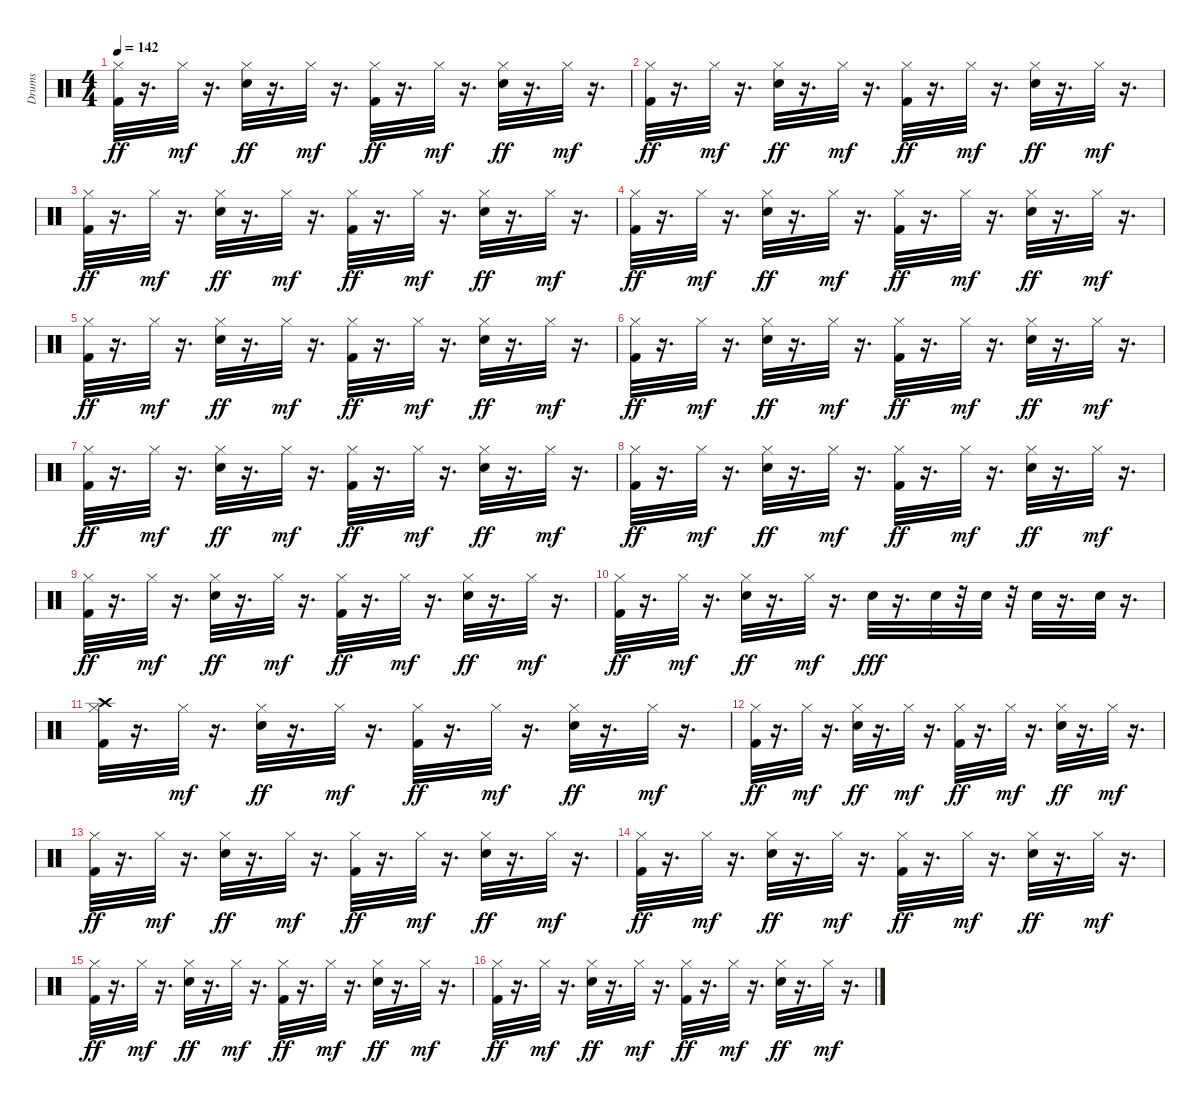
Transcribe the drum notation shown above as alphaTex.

\track ("Drums" "Drums") {instrument percussion}
\staff {score}
\articulation defaults
\ts (4 4)
\tempo 142
\clef neutral
\ks c
("Kick (hit) 2" "Hi-Hat (closed)").32{dy ff} r.16{d} "Hi-Hat (closed)".32{dy mf} r.16{d} ("Snare (hit) 2" "Hi-Hat (closed)").32{dy ff} r.16{d} "Hi-Hat (closed)".32{dy mf} r.16{d} ("Kick (hit) 2" "Hi-Hat (closed)").32{dy ff} r.16{d} "Hi-Hat (closed)".32{dy mf} r.16{d} ("Snare (hit) 2" "Hi-Hat (closed)").32{dy ff} r.16{d} "Hi-Hat (closed)".32{dy mf} r.16{d} |
("Kick (hit) 2" "Hi-Hat (closed)").32{dy ff} r.16{d} "Hi-Hat (closed)".32{dy mf} r.16{d} ("Snare (hit) 2" "Hi-Hat (closed)").32{dy ff} r.16{d} "Hi-Hat (closed)".32{dy mf} r.16{d} ("Kick (hit) 2" "Hi-Hat (closed)").32{dy ff} r.16{d} "Hi-Hat (closed)".32{dy mf} r.16{d} ("Snare (hit) 2" "Hi-Hat (closed)").32{dy ff} r.16{d} "Hi-Hat (closed)".32{dy mf} r.16{d} |
("Kick (hit) 2" "Hi-Hat (closed)").32{dy ff} r.16{d} "Hi-Hat (closed)".32{dy mf} r.16{d} ("Snare (hit) 2" "Hi-Hat (closed)").32{dy ff} r.16{d} "Hi-Hat (closed)".32{dy mf} r.16{d} ("Kick (hit) 2" "Hi-Hat (closed)").32{dy ff} r.16{d} "Hi-Hat (closed)".32{dy mf} r.16{d} ("Snare (hit) 2" "Hi-Hat (closed)").32{dy ff} r.16{d} "Hi-Hat (closed)".32{dy mf} r.16{d} |
("Kick (hit) 2" "Hi-Hat (closed)").32{dy ff} r.16{d} "Hi-Hat (closed)".32{dy mf} r.16{d} ("Snare (hit) 2" "Hi-Hat (closed)").32{dy ff} r.16{d} "Hi-Hat (closed)".32{dy mf} r.16{d} ("Kick (hit) 2" "Hi-Hat (closed)").32{dy ff} r.16{d} "Hi-Hat (closed)".32{dy mf} r.16{d} ("Snare (hit) 2" "Hi-Hat (closed)").32{dy ff} r.16{d} "Hi-Hat (closed)".32{dy mf} r.16{d} |
("Kick (hit) 2" "Hi-Hat (closed)").32{dy ff} r.16{d} "Hi-Hat (closed)".32{dy mf} r.16{d} ("Snare (hit) 2" "Hi-Hat (closed)").32{dy ff} r.16{d} "Hi-Hat (closed)".32{dy mf} r.16{d} ("Kick (hit) 2" "Hi-Hat (closed)").32{dy ff} r.16{d} "Hi-Hat (closed)".32{dy mf} r.16{d} ("Snare (hit) 2" "Hi-Hat (closed)").32{dy ff} r.16{d} "Hi-Hat (closed)".32{dy mf} r.16{d} |
("Kick (hit) 2" "Hi-Hat (closed)").32{dy ff} r.16{d} "Hi-Hat (closed)".32{dy mf} r.16{d} ("Snare (hit) 2" "Hi-Hat (closed)").32{dy ff} r.16{d} "Hi-Hat (closed)".32{dy mf} r.16{d} ("Kick (hit) 2" "Hi-Hat (closed)").32{dy ff} r.16{d} "Hi-Hat (closed)".32{dy mf} r.16{d} ("Snare (hit) 2" "Hi-Hat (closed)").32{dy ff} r.16{d} "Hi-Hat (closed)".32{dy mf} r.16{d} |
("Kick (hit) 2" "Hi-Hat (closed)").32{dy ff} r.16{d} "Hi-Hat (closed)".32{dy mf} r.16{d} ("Snare (hit) 2" "Hi-Hat (closed)").32{dy ff} r.16{d} "Hi-Hat (closed)".32{dy mf} r.16{d} ("Kick (hit) 2" "Hi-Hat (closed)").32{dy ff} r.16{d} "Hi-Hat (closed)".32{dy mf} r.16{d} ("Snare (hit) 2" "Hi-Hat (closed)").32{dy ff} r.16{d} "Hi-Hat (closed)".32{dy mf} r.16{d} |
("Kick (hit) 2" "Hi-Hat (closed)").32{dy ff} r.16{d} "Hi-Hat (closed)".32{dy mf} r.16{d} ("Snare (hit) 2" "Hi-Hat (closed)").32{dy ff} r.16{d} "Hi-Hat (closed)".32{dy mf} r.16{d} ("Kick (hit) 2" "Hi-Hat (closed)").32{dy ff} r.16{d} "Hi-Hat (closed)".32{dy mf} r.16{d} ("Snare (hit) 2" "Hi-Hat (closed)").32{dy ff} r.16{d} "Hi-Hat (closed)".32{dy mf} r.16{d} |
("Kick (hit) 2" "Hi-Hat (closed)").32{dy ff} r.16{d} "Hi-Hat (closed)".32{dy mf} r.16{d} ("Snare (hit) 2" "Hi-Hat (closed)").32{dy ff} r.16{d} "Hi-Hat (closed)".32{dy mf} r.16{d} ("Kick (hit) 2" "Hi-Hat (closed)").32{dy ff} r.16{d} "Hi-Hat (closed)".32{dy mf} r.16{d} ("Snare (hit) 2" "Hi-Hat (closed)").32{dy ff} r.16{d} "Hi-Hat (closed)".32{dy mf} r.16{d} |
("Kick (hit) 2" "Hi-Hat (closed)").32{dy ff} r.16{d} "Hi-Hat (closed)".32{dy mf} r.16{d} ("Snare (hit) 2" "Hi-Hat (closed)").32{dy ff} r.16{d} "Hi-Hat (closed)".32{dy mf} r.16{d} "Snare (hit) 2".32{dy fff} r.16{d} "Snare (hit) 2".32 r.32 "Snare (hit) 2".32 r.32 "Snare (hit) 2".32 r.16{d} "Snare (hit) 2".32 r.16{d} |
("Kick (hit) 2" "Hi-Hat (closed)" "Crash high (hit)").32 r.16{d} "Hi-Hat (closed)".32{dy mf} r.16{d} ("Snare (hit) 2" "Hi-Hat (closed)").32{dy ff} r.16{d} "Hi-Hat (closed)".32{dy mf} r.16{d} ("Kick (hit) 2" "Hi-Hat (closed)").32{dy ff} r.16{d} "Hi-Hat (closed)".32{dy mf} r.16{d} ("Snare (hit) 2" "Hi-Hat (closed)").32{dy ff} r.16{d} "Hi-Hat (closed)".32{dy mf} r.16{d} |
("Kick (hit) 2" "Hi-Hat (closed)").32{dy ff} r.16{d} "Hi-Hat (closed)".32{dy mf} r.16{d} ("Snare (hit) 2" "Hi-Hat (closed)").32{dy ff} r.16{d} "Hi-Hat (closed)".32{dy mf} r.16{d} ("Kick (hit) 2" "Hi-Hat (closed)").32{dy ff} r.16{d} "Hi-Hat (closed)".32{dy mf} r.16{d} ("Snare (hit) 2" "Hi-Hat (closed)").32{dy ff} r.16{d} "Hi-Hat (closed)".32{dy mf} r.16{d} |
("Kick (hit) 2" "Hi-Hat (closed)").32{dy ff} r.16{d} "Hi-Hat (closed)".32{dy mf} r.16{d} ("Snare (hit) 2" "Hi-Hat (closed)").32{dy ff} r.16{d} "Hi-Hat (closed)".32{dy mf} r.16{d} ("Kick (hit) 2" "Hi-Hat (closed)").32{dy ff} r.16{d} "Hi-Hat (closed)".32{dy mf} r.16{d} ("Snare (hit) 2" "Hi-Hat (closed)").32{dy ff} r.16{d} "Hi-Hat (closed)".32{dy mf} r.16{d} |
("Kick (hit) 2" "Hi-Hat (closed)").32{dy ff} r.16{d} "Hi-Hat (closed)".32{dy mf} r.16{d} ("Snare (hit) 2" "Hi-Hat (closed)").32{dy ff} r.16{d} "Hi-Hat (closed)".32{dy mf} r.16{d} ("Kick (hit) 2" "Hi-Hat (closed)").32{dy ff} r.16{d} "Hi-Hat (closed)".32{dy mf} r.16{d} ("Snare (hit) 2" "Hi-Hat (closed)").32{dy ff} r.16{d} "Hi-Hat (closed)".32{dy mf} r.16{d} |
("Kick (hit) 2" "Hi-Hat (closed)").32{dy ff} r.16{d} "Hi-Hat (closed)".32{dy mf} r.16{d} ("Snare (hit) 2" "Hi-Hat (closed)").32{dy ff} r.16{d} "Hi-Hat (closed)".32{dy mf} r.16{d} ("Kick (hit) 2" "Hi-Hat (closed)").32{dy ff} r.16{d} "Hi-Hat (closed)".32{dy mf} r.16{d} ("Snare (hit) 2" "Hi-Hat (closed)").32{dy ff} r.16{d} "Hi-Hat (closed)".32{dy mf} r.16{d} |
("Kick (hit) 2" "Hi-Hat (closed)").32{dy ff} r.16{d} "Hi-Hat (closed)".32{dy mf} r.16{d} ("Snare (hit) 2" "Hi-Hat (closed)").32{dy ff} r.16{d} "Hi-Hat (closed)".32{dy mf} r.16{d} ("Kick (hit) 2" "Hi-Hat (closed)").32{dy ff} r.16{d} "Hi-Hat (closed)".32{dy mf} r.16{d} ("Snare (hit) 2" "Hi-Hat (closed)").32{dy ff} r.16{d} "Hi-Hat (closed)".32{dy mf} r.16{d}
